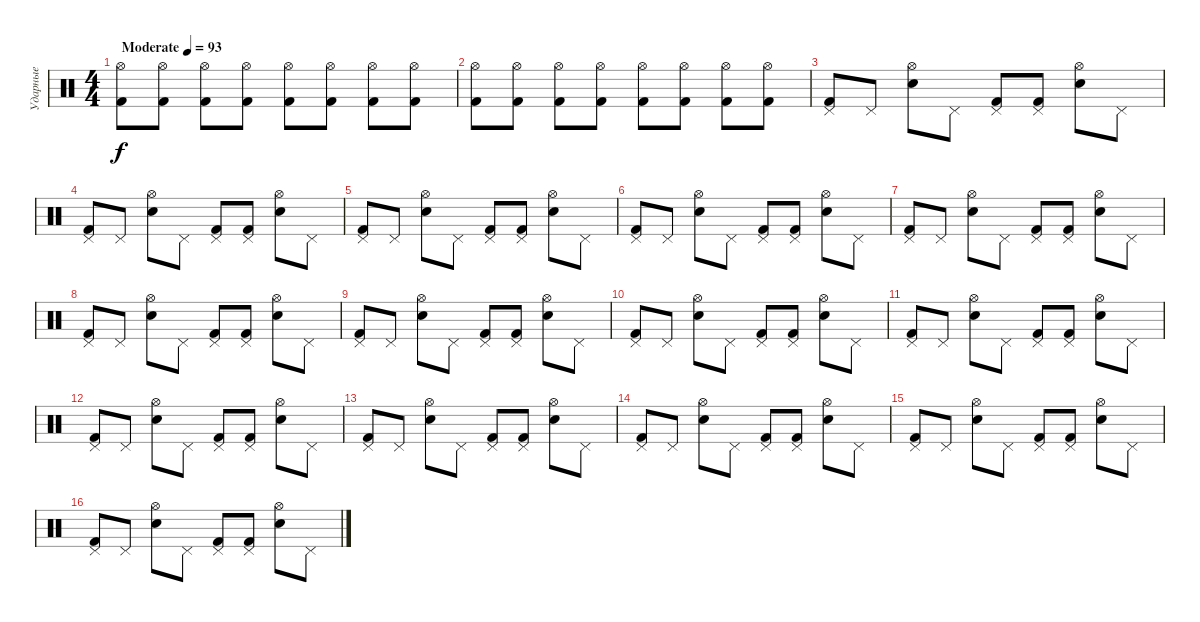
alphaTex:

\track ("Ударные" "Ударные") {instrument percussion}
\staff {score}
\articulation defaults
\ts (4 4)
\tempo (93 "Moderate")
\clef neutral
\ks c
("Kick (hit) 2" "Hi-Hat (open)").8{dy f} ("Kick (hit) 2" "Hi-Hat (open)").8 ("Kick (hit) 2" "Hi-Hat (open)").8 ("Kick (hit) 2" "Hi-Hat (open)").8 ("Kick (hit) 2" "Hi-Hat (open)").8 ("Kick (hit) 2" "Hi-Hat (open)").8 ("Kick (hit) 2" "Hi-Hat (open)").8 ("Kick (hit) 2" "Hi-Hat (open)").8 |
("Kick (hit) 2" "Hi-Hat (open)").8 ("Kick (hit) 2" "Hi-Hat (open)").8 ("Kick (hit) 2" "Hi-Hat (open)").8 ("Kick (hit) 2" "Hi-Hat (open)").8 ("Kick (hit) 2" "Hi-Hat (open)").8 ("Kick (hit) 2" "Hi-Hat (open)").8 ("Kick (hit) 2" "Hi-Hat (open)").8 ("Kick (hit) 2" "Hi-Hat (open)").8 |
("Kick (hit) 2" "Pedal Hi-Hat (hit)").8 "Pedal Hi-Hat (hit)".8 ("Hi-Hat (open)" "Snare (hit) 2").8 "Pedal Hi-Hat (hit)".8 ("Kick (hit) 2" "Pedal Hi-Hat (hit)").8 ("Kick (hit) 2" "Pedal Hi-Hat (hit)").8 ("Hi-Hat (open)" "Snare (hit) 2").8 "Pedal Hi-Hat (hit)".8 |
("Kick (hit) 2" "Pedal Hi-Hat (hit)").8 "Pedal Hi-Hat (hit)".8 ("Hi-Hat (open)" "Snare (hit) 2").8 "Pedal Hi-Hat (hit)".8 ("Kick (hit) 2" "Pedal Hi-Hat (hit)").8 ("Kick (hit) 2" "Pedal Hi-Hat (hit)").8 ("Hi-Hat (open)" "Snare (hit) 2").8 "Pedal Hi-Hat (hit)".8 |
("Kick (hit) 2" "Pedal Hi-Hat (hit)").8 "Pedal Hi-Hat (hit)".8 ("Hi-Hat (open)" "Snare (hit) 2").8 "Pedal Hi-Hat (hit)".8 ("Kick (hit) 2" "Pedal Hi-Hat (hit)").8 ("Kick (hit) 2" "Pedal Hi-Hat (hit)").8 ("Hi-Hat (open)" "Snare (hit) 2").8 "Pedal Hi-Hat (hit)".8 |
("Kick (hit) 2" "Pedal Hi-Hat (hit)").8 "Pedal Hi-Hat (hit)".8 ("Hi-Hat (open)" "Snare (hit) 2").8 "Pedal Hi-Hat (hit)".8 ("Kick (hit) 2" "Pedal Hi-Hat (hit)").8 ("Kick (hit) 2" "Pedal Hi-Hat (hit)").8 ("Hi-Hat (open)" "Snare (hit) 2").8 "Pedal Hi-Hat (hit)".8 |
("Kick (hit) 2" "Pedal Hi-Hat (hit)").8 "Pedal Hi-Hat (hit)".8 ("Hi-Hat (open)" "Snare (hit) 2").8 "Pedal Hi-Hat (hit)".8 ("Kick (hit) 2" "Pedal Hi-Hat (hit)").8 ("Kick (hit) 2" "Pedal Hi-Hat (hit)").8 ("Hi-Hat (open)" "Snare (hit) 2").8 "Pedal Hi-Hat (hit)".8 |
("Kick (hit) 2" "Pedal Hi-Hat (hit)").8 "Pedal Hi-Hat (hit)".8 ("Hi-Hat (open)" "Snare (hit) 2").8 "Pedal Hi-Hat (hit)".8 ("Kick (hit) 2" "Pedal Hi-Hat (hit)").8 ("Kick (hit) 2" "Pedal Hi-Hat (hit)").8 ("Hi-Hat (open)" "Snare (hit) 2").8 "Pedal Hi-Hat (hit)".8 |
("Kick (hit) 2" "Pedal Hi-Hat (hit)").8 "Pedal Hi-Hat (hit)".8 ("Hi-Hat (open)" "Snare (hit) 2").8 "Pedal Hi-Hat (hit)".8 ("Kick (hit) 2" "Pedal Hi-Hat (hit)").8 ("Kick (hit) 2" "Pedal Hi-Hat (hit)").8 ("Hi-Hat (open)" "Snare (hit) 2").8 "Pedal Hi-Hat (hit)".8 |
("Kick (hit) 2" "Pedal Hi-Hat (hit)").8 "Pedal Hi-Hat (hit)".8 ("Hi-Hat (open)" "Snare (hit) 2").8 "Pedal Hi-Hat (hit)".8 ("Kick (hit) 2" "Pedal Hi-Hat (hit)").8 ("Kick (hit) 2" "Pedal Hi-Hat (hit)").8 ("Hi-Hat (open)" "Snare (hit) 2").8 "Pedal Hi-Hat (hit)".8 |
("Kick (hit) 2" "Pedal Hi-Hat (hit)").8 "Pedal Hi-Hat (hit)".8 ("Hi-Hat (open)" "Snare (hit) 2").8 "Pedal Hi-Hat (hit)".8 ("Kick (hit) 2" "Pedal Hi-Hat (hit)").8 ("Kick (hit) 2" "Pedal Hi-Hat (hit)").8 ("Hi-Hat (open)" "Snare (hit) 2").8 "Pedal Hi-Hat (hit)".8 |
("Kick (hit) 2" "Pedal Hi-Hat (hit)").8 "Pedal Hi-Hat (hit)".8 ("Hi-Hat (open)" "Snare (hit) 2").8 "Pedal Hi-Hat (hit)".8 ("Kick (hit) 2" "Pedal Hi-Hat (hit)").8 ("Kick (hit) 2" "Pedal Hi-Hat (hit)").8 ("Hi-Hat (open)" "Snare (hit) 2").8 "Pedal Hi-Hat (hit)".8 |
("Kick (hit) 2" "Pedal Hi-Hat (hit)").8 "Pedal Hi-Hat (hit)".8 ("Hi-Hat (open)" "Snare (hit) 2").8 "Pedal Hi-Hat (hit)".8 ("Kick (hit) 2" "Pedal Hi-Hat (hit)").8 ("Kick (hit) 2" "Pedal Hi-Hat (hit)").8 ("Hi-Hat (open)" "Snare (hit) 2").8 "Pedal Hi-Hat (hit)".8 |
("Kick (hit) 2" "Pedal Hi-Hat (hit)").8 "Pedal Hi-Hat (hit)".8 ("Hi-Hat (open)" "Snare (hit) 2").8 "Pedal Hi-Hat (hit)".8 ("Kick (hit) 2" "Pedal Hi-Hat (hit)").8 ("Kick (hit) 2" "Pedal Hi-Hat (hit)").8 ("Hi-Hat (open)" "Snare (hit) 2").8 "Pedal Hi-Hat (hit)".8 |
("Kick (hit) 2" "Pedal Hi-Hat (hit)").8 "Pedal Hi-Hat (hit)".8 ("Hi-Hat (open)" "Snare (hit) 2").8 "Pedal Hi-Hat (hit)".8 ("Kick (hit) 2" "Pedal Hi-Hat (hit)").8 ("Kick (hit) 2" "Pedal Hi-Hat (hit)").8 ("Hi-Hat (open)" "Snare (hit) 2").8 "Pedal Hi-Hat (hit)".8 |
("Kick (hit) 2" "Pedal Hi-Hat (hit)").8 "Pedal Hi-Hat (hit)".8 ("Hi-Hat (open)" "Snare (hit) 2").8 "Pedal Hi-Hat (hit)".8 ("Kick (hit) 2" "Pedal Hi-Hat (hit)").8 ("Kick (hit) 2" "Pedal Hi-Hat (hit)").8 ("Hi-Hat (open)" "Snare (hit) 2").8 "Pedal Hi-Hat (hit)".8
